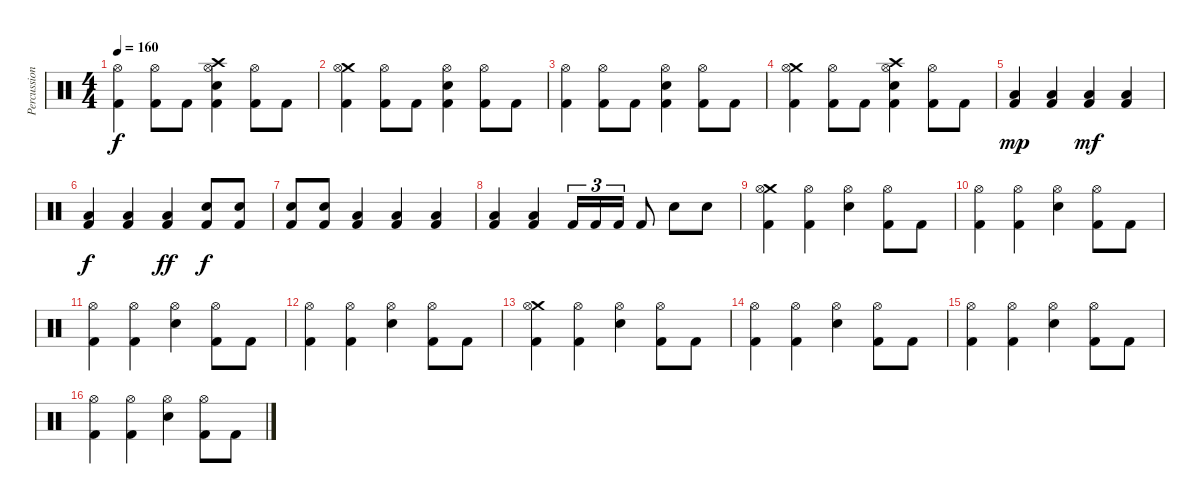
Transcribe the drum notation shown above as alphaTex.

\track ("Percussion" "Percussion") {instrument percussion}
\staff {score}
\articulation defaults
\ts (4 4)
\tempo 160
\clef neutral
\ks c
("Hi-Hat (open)" "Kick (hit) 2").4{dy f} ("Hi-Hat (open)" "Kick (hit) 2").8 "Kick (hit) 2".8 ("Crash high (hit)" "Hi-Hat (open)" "Electric Snare (hit)" "Kick (hit) 2").4 ("Hi-Hat (open)" "Kick (hit) 2").8 "Kick (hit) 2".8 |
("Crash medium (hit)" "Hi-Hat (open)" "Kick (hit) 2").4 ("Hi-Hat (open)" "Kick (hit) 2").8 "Kick (hit) 2".8 ("Hi-Hat (open)" "Electric Snare (hit)" "Kick (hit) 2").4 ("Hi-Hat (open)" "Kick (hit) 2").8 "Kick (hit) 2".8 |
("Hi-Hat (open)" "Kick (hit) 2").4 ("Hi-Hat (open)" "Kick (hit) 2").8 "Kick (hit) 2".8 ("Hi-Hat (open)" "Electric Snare (hit)" "Kick (hit) 2").4 ("Hi-Hat (open)" "Kick (hit) 2").8 "Kick (hit) 2".8 |
("Crash medium (hit)" "Hi-Hat (open)" "Kick (hit) 2").4 ("Hi-Hat (open)" "Kick (hit) 2").8 "Kick (hit) 2".8 ("Crash high (hit)" "Hi-Hat (open)" "Electric Snare (hit)" "Kick (hit) 2").4 ("Hi-Hat (open)" "Kick (hit) 2").8 "Kick (hit) 2".8 |
("Low Floor Tom (hit)" "Kick (hit) 2").4{dy mp} ("Low Floor Tom (hit)" "Kick (hit) 2").4 ("Low Floor Tom (hit)" "Kick (hit) 2").4{dy mf} ("Low Floor Tom (hit)" "Kick (hit) 2").4 |
("Low Floor Tom (hit)" "Kick (hit) 2").4{dy f} ("Low Floor Tom (hit)" "Kick (hit) 2").4 ("Low Floor Tom (hit)" "Kick (hit) 2").4{dy ff} ("Electric Snare (hit)" "Kick (hit) 2").8{dy f} ("Electric Snare (hit)" "Kick (hit) 2").8 |
("Electric Snare (hit)" "Kick (hit) 2").8 ("Electric Snare (hit)" "Kick (hit) 2").8 ("Low Floor Tom (hit)" "Kick (hit) 2").4 ("Low Floor Tom (hit)" "Kick (hit) 2").4 ("Low Floor Tom (hit)" "Kick (hit) 2").4 |
("Low Floor Tom (hit)" "Kick (hit) 2").4 ("Low Floor Tom (hit)" "Kick (hit) 2").4 "Kick (hit) 2".16{tu (3 2)} "Kick (hit) 2".16{tu (3 2)} "Kick (hit) 2".16{tu (3 2)} "Kick (hit) 2".8 "Electric Snare (hit)".8 "Electric Snare (hit)".8 |
("Crash medium (hit)" "Hi-Hat (open)" "Kick (hit) 2").4 ("Hi-Hat (open)" "Kick (hit) 2").4 ("Hi-Hat (open)" "Electric Snare (hit)").4 ("Hi-Hat (open)" "Kick (hit) 2").8 "Kick (hit) 2".8 |
("Hi-Hat (open)" "Kick (hit) 2").4 ("Hi-Hat (open)" "Kick (hit) 2").4 ("Hi-Hat (open)" "Electric Snare (hit)").4 ("Hi-Hat (open)" "Kick (hit) 2").8 "Kick (hit) 2".8 |
("Hi-Hat (open)" "Kick (hit) 2").4 ("Hi-Hat (open)" "Kick (hit) 2").4 ("Hi-Hat (open)" "Electric Snare (hit)").4 ("Hi-Hat (open)" "Kick (hit) 2").8 "Kick (hit) 2".8 |
("Hi-Hat (open)" "Kick (hit) 2").4 ("Hi-Hat (open)" "Kick (hit) 2").4 ("Hi-Hat (open)" "Electric Snare (hit)").4 ("Hi-Hat (open)" "Kick (hit) 2").8 "Kick (hit) 2".8 |
("Crash medium (hit)" "Hi-Hat (open)" "Kick (hit) 2").4 ("Hi-Hat (open)" "Kick (hit) 2").4 ("Hi-Hat (open)" "Electric Snare (hit)").4 ("Hi-Hat (open)" "Kick (hit) 2").8 "Kick (hit) 2".8 |
("Hi-Hat (open)" "Kick (hit) 2").4 ("Hi-Hat (open)" "Kick (hit) 2").4 ("Hi-Hat (open)" "Electric Snare (hit)").4 ("Hi-Hat (open)" "Kick (hit) 2").8 "Kick (hit) 2".8 |
("Hi-Hat (open)" "Kick (hit) 2").4 ("Hi-Hat (open)" "Kick (hit) 2").4 ("Hi-Hat (open)" "Electric Snare (hit)").4 ("Hi-Hat (open)" "Kick (hit) 2").8 "Kick (hit) 2".8 |
("Hi-Hat (open)" "Kick (hit) 2").4 ("Hi-Hat (open)" "Kick (hit) 2").4 ("Hi-Hat (open)" "Electric Snare (hit)").4 ("Hi-Hat (open)" "Kick (hit) 2").8 "Kick (hit) 2".8
